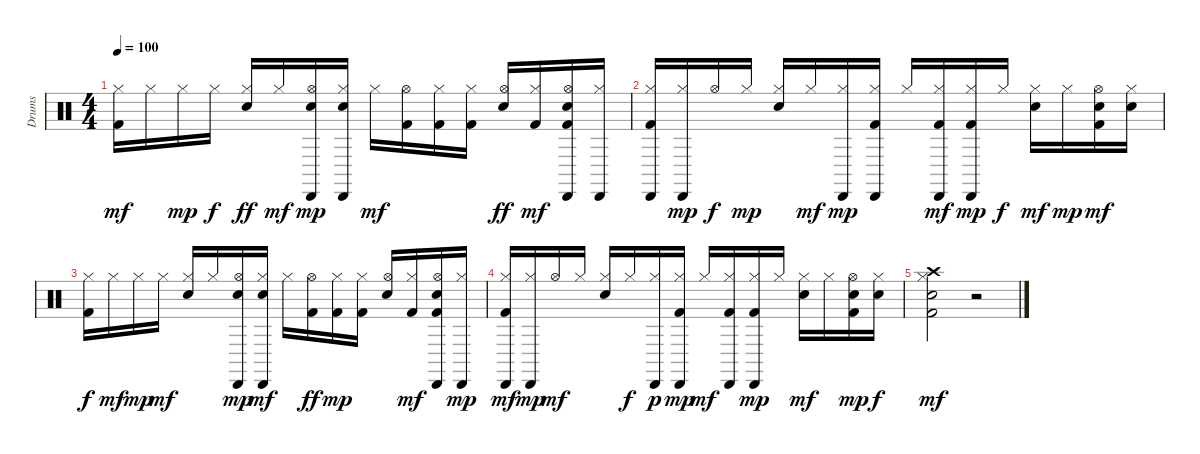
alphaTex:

\track ("Drums" "Drums") {instrument percussion}
\staff {score}
\articulation defaults
\ts (4 4)
\tempo 100
\clef neutral
\ks c
("Kick (hit) 2" "Hi-Hat (closed)").16{dy mf} "Hi-Hat (closed)".16 "Hi-Hat (closed)".16{dy mp} "Hi-Hat (closed)".16{dy f} ("Snare (hit) 2" "Hi-Hat (closed)").16{dy ff} "Hi-Hat (closed)".16{dy mf} ("Hand Clap (hit)" "Hi-Hat (open)" "Cabasa (hit)").16{dy mp} ("Hand Clap (hit)" "Hi-Hat (closed)" "Cabasa (hit)").16 "Hi-Hat (closed)".16{dy mf} ("Kick (hit) 2" "Hi-Hat (open)").16 ("Kick (hit) 2" "Hi-Hat (closed)").16 ("Kick (hit) 2" "Hi-Hat (closed)").16 ("Snare (hit) 2" "Hi-Hat (open)").16{dy ff} ("Kick (hit) 2" "Hi-Hat (closed)").16{dy mf} ("Kick (hit) 2" "Hand Clap (hit)" "Hi-Hat (open)" "Cabasa (hit)").16 ("Hi-Hat (closed)" "Cabasa (hit)").16 |
("Kick (hit) 2" "Hi-Hat (closed)" "Cabasa (hit)").16 ("Hi-Hat (closed)" "Cabasa (hit)").16{dy mp} "Hi-Hat (open)".16{dy f} "Hi-Hat (closed)".16{dy mp} ("Snare (hit) 2" "Hi-Hat (closed)").16 "Hi-Hat (closed)".16{dy mf} ("Hi-Hat (closed)" "Cabasa (hit)").16{dy mp} ("Kick (hit) 2" "Hi-Hat (closed)" "Cabasa (hit)").16 "Hi-Hat (closed)".16 ("Kick (hit) 2" "Hi-Hat (closed)" "Cabasa (hit)").16{dy mf} ("Kick (hit) 2" "Hi-Hat (closed)" "Cabasa (hit)").16{dy mp} "Hi-Hat (closed)".16{dy f} ("Snare (hit) 2" "Hi-Hat (closed)").16{dy mf} "Hi-Hat (closed)".16{dy mp} ("Kick (hit) 2" "Hand Clap (hit)" "Hi-Hat (open)").16{dy mf} ("Hand Clap (hit)" "Hi-Hat (closed)").16 |
("Kick (hit) 2" "Hi-Hat (closed)").16{dy f} "Hi-Hat (closed)".16{dy mf} "Hi-Hat (closed)".16{dy mp} "Hi-Hat (closed)".16{dy mf} ("Snare (hit) 2" "Hi-Hat (closed)").16 "Hi-Hat (closed)".16 ("Hand Clap (hit)" "Hi-Hat (open)" "Cabasa (hit)").16{dy mp} ("Hand Clap (hit)" "Hi-Hat (closed)" "Cabasa (hit)").16{dy mf} "Hi-Hat (closed)".16 ("Kick (hit) 2" "Hi-Hat (open)").16{dy ff} ("Kick (hit) 2" "Hi-Hat (closed)").16{dy mp} ("Kick (hit) 2" "Hi-Hat (closed)").16 ("Snare (hit) 2" "Hi-Hat (open)").16 ("Kick (hit) 2" "Hi-Hat (closed)").16{dy mf} ("Kick (hit) 2" "Hand Clap (hit)" "Hi-Hat (open)" "Cabasa (hit)").16 ("Hi-Hat (closed)" "Cabasa (hit)").16{dy mp} |
("Kick (hit) 2" "Hi-Hat (closed)" "Cabasa (hit)").16{dy mf} ("Hi-Hat (closed)" "Cabasa (hit)").16{dy mp} "Hi-Hat (open)".16{dy mf} "Hi-Hat (closed)".16 ("Snare (hit) 2" "Hi-Hat (closed)").16 "Hi-Hat (closed)".16{dy f} ("Hi-Hat (closed)" "Cabasa (hit)").16{dy p} ("Kick (hit) 2" "Hi-Hat (closed)" "Cabasa (hit)").16{dy mp} "Hi-Hat (closed)".16{dy mf} ("Kick (hit) 2" "Hi-Hat (closed)" "Cabasa (hit)").16 ("Kick (hit) 2" "Hi-Hat (closed)" "Cabasa (hit)").16{dy mp} "Hi-Hat (closed)".16 ("Snare (hit) 2" "Hi-Hat (closed)").16{dy mf} "Hi-Hat (closed)".16 ("Kick (hit) 2" "Hand Clap (hit)" "Hi-Hat (open)").16{dy mp} ("Hand Clap (hit)" "Hi-Hat (closed)").16{dy f} |
("Kick (hit) 2" "Snare (hit) 2" "Hi-Hat (closed)" "Crash high (hit)").2{dy mf} r.2
